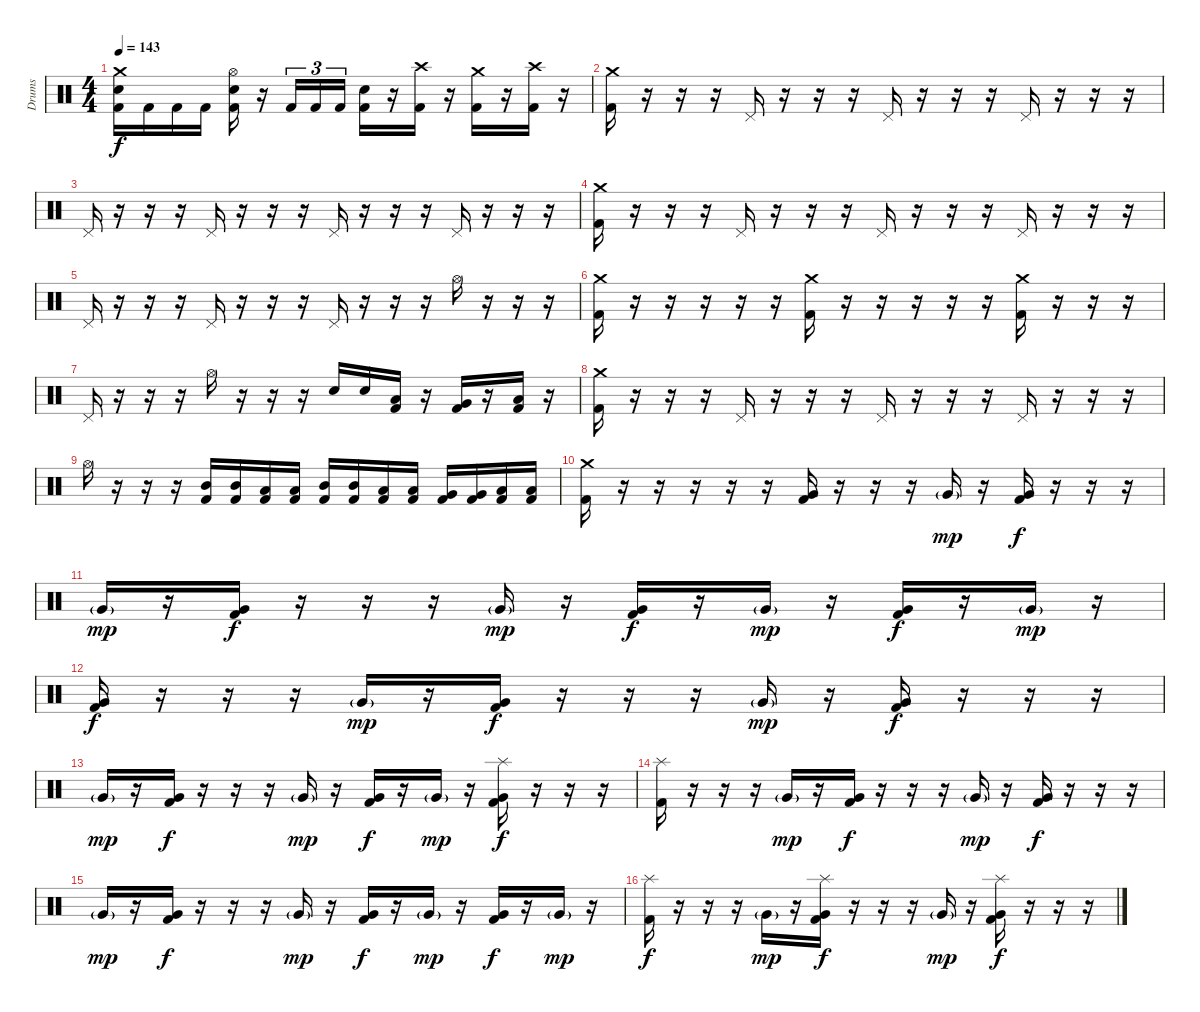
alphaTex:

\track ("Drums" "Drums") {instrument percussion}
\staff {score}
\articulation defaults
\ts (4 4)
\tempo 143
\clef neutral
\ks c
("Crash medium (hit)" "Electric Snare (hit)" "Kick (hit) 2").16{dy f} "Kick (hit) 2".16 "Kick (hit) 2".16 "Kick (hit) 2".16 ("Hi-Hat (open)" "Electric Snare (hit)" "Kick (hit) 2").16 r.16 "Kick (hit) 2".16{tu (3 2)} "Kick (hit) 2".16{tu (3 2)} "Kick (hit) 2".16{tu (3 2)} ("Electric Snare (hit)" "Kick (hit) 2").16 r.16 ("Crash high (hit)" "Kick (hit) 2").16 r.16 ("Crash medium (hit)" "Kick (hit) 2").16 r.16 ("Crash high (hit)" "Kick (hit) 2").16 r.16 |
\section ("" "")
("Crash medium (hit)" "Kick (hit) 2").16 r.16 r.16 r.16 "Pedal Hi-Hat (hit)".16 r.16 r.16 r.16 "Pedal Hi-Hat (hit)".16 r.16 r.16 r.16 "Pedal Hi-Hat (hit)".16 r.16 r.16 r.16 |
"Pedal Hi-Hat (hit)".16 r.16 r.16 r.16 "Pedal Hi-Hat (hit)".16 r.16 r.16 r.16 "Pedal Hi-Hat (hit)".16 r.16 r.16 r.16 "Pedal Hi-Hat (hit)".16 r.16 r.16 r.16 |
("Crash medium (hit)" "Kick (hit) 2").16 r.16 r.16 r.16 "Pedal Hi-Hat (hit)".16 r.16 r.16 r.16 "Pedal Hi-Hat (hit)".16 r.16 r.16 r.16 "Pedal Hi-Hat (hit)".16 r.16 r.16 r.16 |
"Pedal Hi-Hat (hit)".16 r.16 r.16 r.16 "Pedal Hi-Hat (hit)".16 r.16 r.16 r.16 "Pedal Hi-Hat (hit)".16 r.16 r.16 r.16 "Hi-Hat (open)".16 r.16 r.16 r.16 |
("Crash medium (hit)" "Kick (hit) 2").16 r.16 r.16{volume 0} r.16 r.16 r.16 ("Crash medium (hit)" "Kick (hit) 2").16{volume 16} r.16 r.16 r.16{volume 0} r.16 r.16 ("Crash medium (hit)" "Kick (hit) 2").16{volume 16} r.16 r.16 r.16{volume 0} |
"Pedal Hi-Hat (hit)".16{volume 16} r.16 r.16 r.16 "Hi-Hat (open)".16 r.16 r.16 r.16 "Electric Snare (hit)".16 "Electric Snare (hit)".16 ("Low Tom (hit)" "Kick (hit) 2").16 r.16 ("Very Low Tom (hit)" "Kick (hit) 2").16 r.16 ("Low Floor Tom (hit)" "Kick (hit) 2").16 r.16 |
("Crash medium (hit)" "Kick (hit) 2").16 r.16 r.16 r.16 "Pedal Hi-Hat (hit)".16 r.16 r.16 r.16 "Pedal Hi-Hat (hit)".16 r.16 r.16 r.16 "Pedal Hi-Hat (hit)".16 r.16 r.16 r.16 |
"Hi-Hat (open)".16 r.16 r.16 r.16 ("Mid Tom (hit)" "Kick (hit) 2").16 ("Mid Tom (hit)" "Kick (hit) 2").16 ("Low Tom (hit)" "Kick (hit) 2").16 ("Low Tom (hit)" "Kick (hit) 2").16 ("Mid Tom (hit)" "Kick (hit) 2").16 ("Mid Tom (hit)" "Kick (hit) 2").16 ("Low Tom (hit)" "Kick (hit) 2").16 ("Low Tom (hit)" "Kick (hit) 2").16 ("Very Low Tom (hit)" "Kick (hit) 2").16 ("Very Low Tom (hit)" "Kick (hit) 2").16 ("Low Floor Tom (hit)" "Kick (hit) 2").16 ("Low Floor Tom (hit)" "Kick (hit) 2").16 |
("Crash medium (hit)" "Kick (hit) 2").16 r.16 r.16 r.16 r.16 r.16 ("Very Low Tom (hit)" "Kick (hit) 2").16 r.16 r.16 r.16 "Very Low Tom (hit)"{g}.16{dy mp} r.16 ("Very Low Tom (hit)" "Kick (hit) 2").16{dy f} r.16 r.16 r.16 |
"Very Low Tom (hit)"{g}.16{dy mp} r.16 ("Very Low Tom (hit)" "Kick (hit) 2").16{dy f} r.16 r.16 r.16 "Very Low Tom (hit)"{g}.16{dy mp} r.16 ("Very Low Tom (hit)" "Kick (hit) 2").16{dy f} r.16 "Very Low Tom (hit)"{g}.16{dy mp} r.16 ("Very Low Tom (hit)" "Kick (hit) 2").16{dy f} r.16 "Very Low Tom (hit)"{g}.16{dy mp} r.16 |
("Very Low Tom (hit)" "Kick (hit) 2").16{dy f} r.16 r.16 r.16 "Very Low Tom (hit)"{g}.16{dy mp} r.16 ("Very Low Tom (hit)" "Kick (hit) 2").16{dy f} r.16 r.16 r.16 "Very Low Tom (hit)"{g}.16{dy mp} r.16 ("Very Low Tom (hit)" "Kick (hit) 2").16{dy f} r.16 r.16 r.16 |
"Very Low Tom (hit)"{g}.16{dy mp} r.16 ("Very Low Tom (hit)" "Kick (hit) 2").16{dy f} r.16 r.16 r.16 "Very Low Tom (hit)"{g}.16{dy mp} r.16 ("Very Low Tom (hit)" "Kick (hit) 2").16{dy f} r.16 "Very Low Tom (hit)"{g}.16{dy mp} r.16 ("Splash (hit)" "Very Low Tom (hit)" "Kick (hit) 2").16{dy f} r.16 r.16 r.16 |
("Splash (hit)" "Kick (hit) 2").16 r.16 r.16 r.16 "Very Low Tom (hit)"{g}.16{dy mp} r.16 ("Very Low Tom (hit)" "Kick (hit) 2").16{dy f} r.16 r.16 r.16 "Very Low Tom (hit)"{g}.16{dy mp} r.16 ("Very Low Tom (hit)" "Kick (hit) 2").16{dy f} r.16 r.16 r.16 |
"Very Low Tom (hit)"{g}.16{dy mp} r.16 ("Very Low Tom (hit)" "Kick (hit) 2").16{dy f} r.16 r.16 r.16 "Very Low Tom (hit)"{g}.16{dy mp} r.16 ("Very Low Tom (hit)" "Kick (hit) 2").16{dy f} r.16 "Very Low Tom (hit)"{g}.16{dy mp} r.16 ("Very Low Tom (hit)" "Kick (hit) 2").16{dy f} r.16 "Very Low Tom (hit)"{g}.16{dy mp} r.16 |
("Splash (hit)" "Kick (hit) 2").16{dy f} r.16 r.16 r.16 "Very Low Tom (hit)"{g}.16{dy mp} r.16 ("Splash (hit)" "Very Low Tom (hit)" "Kick (hit) 2").16{dy f} r.16 r.16 r.16 "Very Low Tom (hit)"{g}.16{dy mp} r.16 ("Splash (hit)" "Very Low Tom (hit)" "Kick (hit) 2").16{dy f} r.16 r.16 r.16
